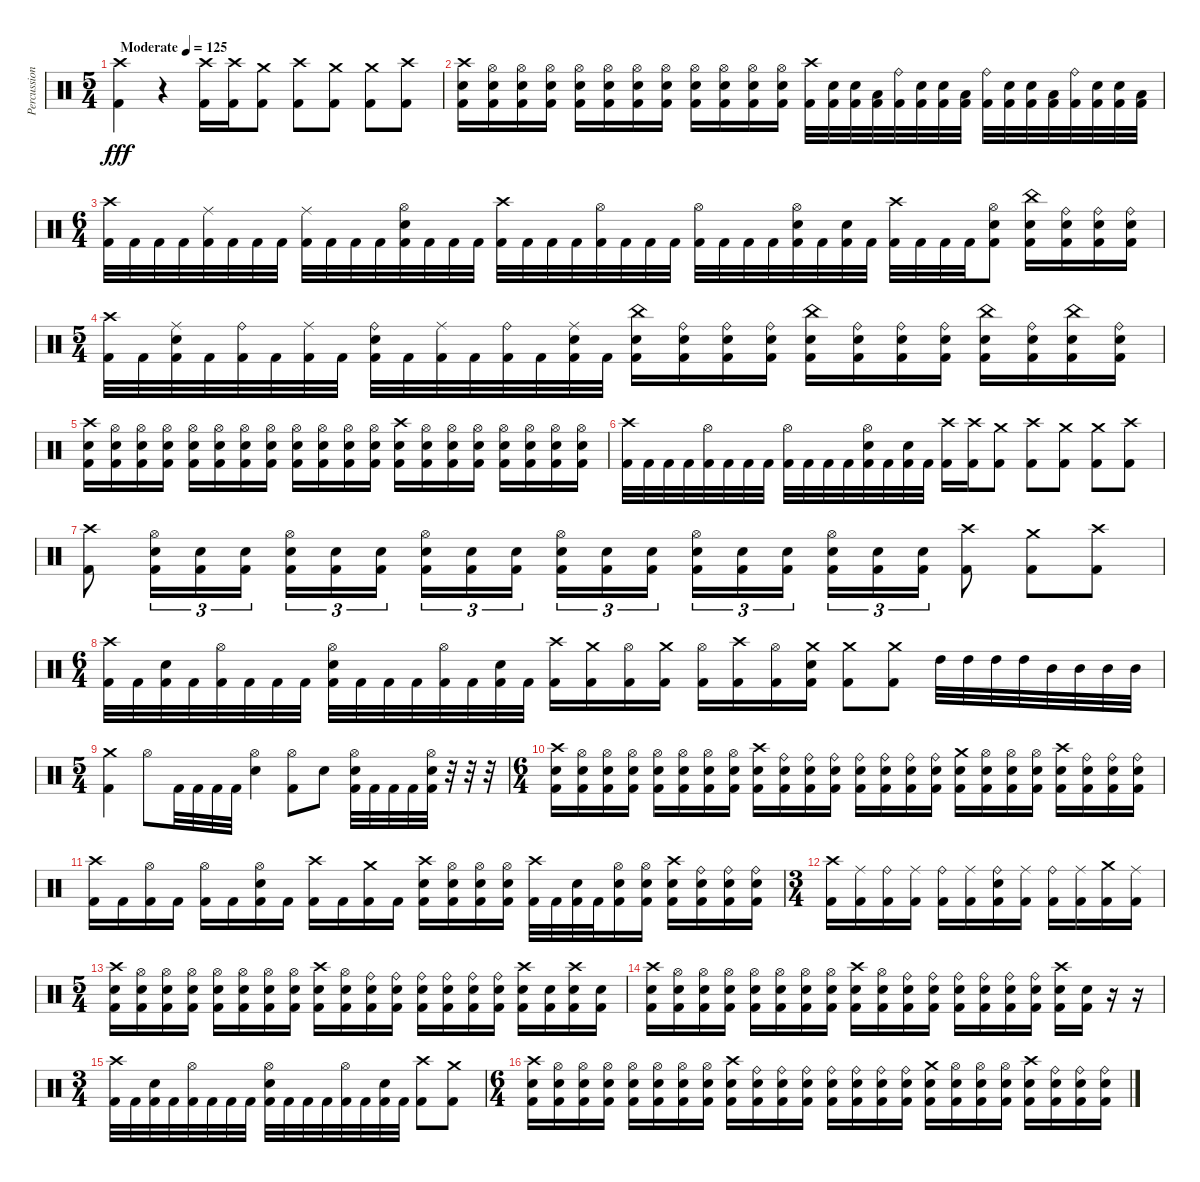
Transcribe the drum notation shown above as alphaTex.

\track ("Percussion" "Percussion") {instrument percussion}
\staff {score}
\articulation defaults
\ts (5 4)
\tempo (125 "Moderate")
\tempo 120
\tempo (125 "Moderate")
\clef neutral
\ks c
("Crash high (hit)" "Kick (hit) 2").4{dy fff} r.4 ("Crash high (hit)" "Kick (hit) 2").16 ("Crash high (hit)" "Kick (hit) 2").16 ("Crash medium (hit)" "Kick (hit) 2").8 ("Crash high (hit)" "Kick (hit) 2").8 ("Crash medium (hit)" "Kick (hit) 2").8 ("Crash medium (hit)" "Kick (hit) 2").8 ("Crash high (hit)" "Kick (hit) 2").8 |
("Electric Snare (hit)" "Crash high (hit)" "Kick (hit) 2").16 ("Electric Snare (hit)" "Hi-Hat (open)" "Kick (hit) 2").16 ("Electric Snare (hit)" "Hi-Hat (open)" "Kick (hit) 2").16 ("Electric Snare (hit)" "Hi-Hat (open)" "Kick (hit) 2").16 ("Electric Snare (hit)" "Hi-Hat (open)" "Kick (hit) 2").16 ("Electric Snare (hit)" "Hi-Hat (open)" "Kick (hit) 2").16 ("Electric Snare (hit)" "Hi-Hat (open)" "Kick (hit) 2").16 ("Electric Snare (hit)" "Hi-Hat (open)" "Kick (hit) 2").16 ("Electric Snare (hit)" "Hi-Hat (open)" "Kick (hit) 2").16 ("Electric Snare (hit)" "Hi-Hat (open)" "Kick (hit) 2").16 ("Electric Snare (hit)" "Hi-Hat (open)" "Kick (hit) 2").16 ("Electric Snare (hit)" "Hi-Hat (open)" "Kick (hit) 2").16 ("Crash high (hit)" "Kick (hit) 2").32 ("Electric Snare (hit)" "Kick (hit) 2").32 ("Electric Snare (hit)" "Kick (hit) 2").32 ("Low Tom (hit)" "Kick (hit) 2").32 ("Ride (bell)" "Kick (hit) 2").32 ("Electric Snare (hit)" "Kick (hit) 2").32 ("Electric Snare (hit)" "Kick (hit) 2").32 ("Low Tom (hit)" "Kick (hit) 2").32 ("Ride (bell)" "Kick (hit) 2").32 ("Electric Snare (hit)" "Kick (hit) 2").32 ("Electric Snare (hit)" "Kick (hit) 2").32 ("Low Tom (hit)" "Kick (hit) 2").32 ("Ride (bell)" "Kick (hit) 2").32 ("Electric Snare (hit)" "Kick (hit) 2").32 ("Electric Snare (hit)" "Kick (hit) 2").32 ("Low Tom (hit)" "Kick (hit) 2").32 |
\ts (6 4)
("Crash high (hit)" "Kick (hit) 2").32 "Kick (hit) 2".32 "Kick (hit) 2".32 "Kick (hit) 2".32 ("Ride (middle)" "Kick (hit) 2").32 "Kick (hit) 2".32 "Kick (hit) 2".32 "Kick (hit) 2".32 ("Ride (middle)" "Kick (hit) 2").32 "Kick (hit) 2".32 "Kick (hit) 2".32 "Kick (hit) 2".32 ("Electric Snare (hit)" "Hi-Hat (open)" "Kick (hit) 2").32 "Kick (hit) 2".32 "Kick (hit) 2".32 "Kick (hit) 2".32 ("Crash high (hit)" "Kick (hit) 2").32 "Kick (hit) 2".32 "Kick (hit) 2".32 "Kick (hit) 2".32 ("Hi-Hat (open)" "Kick (hit) 2").32 "Kick (hit) 2".32 "Kick (hit) 2".32 "Kick (hit) 2".32 ("Hi-Hat (open)" "Kick (hit) 2").32 "Kick (hit) 2".32 "Kick (hit) 2".32 "Kick (hit) 2".32 ("Electric Snare (hit)" "Hi-Hat (open)" "Kick (hit) 2").32 "Kick (hit) 2".32 ("Electric Snare (hit)" "Kick (hit) 2").32 "Kick (hit) 2".32 ("Crash high (hit)" "Kick (hit) 2").32 "Kick (hit) 2".32 "Kick (hit) 2".32 "Kick (hit) 2".32 ("Electric Snare (hit)" "Hi-Hat (open)" "Kick (hit) 2").8 ("Electric Snare (hit)" "China (hit)" "Kick (hit) 2").16 ("Electric Snare (hit)" "Ride (bell)" "Kick (hit) 2").16 ("Electric Snare (hit)" "Ride (bell)" "Kick (hit) 2").16 ("Electric Snare (hit)" "Ride (bell)" "Kick (hit) 2").16 |
\ts (5 4)
("Crash high (hit)" "Kick (hit) 2").32 "Kick (hit) 2".32 ("Electric Snare (hit)" "Ride (middle)" "Kick (hit) 2").32 "Kick (hit) 2".32 ("Ride (bell)" "Kick (hit) 2").32 "Kick (hit) 2".32 ("Ride (middle)" "Kick (hit) 2").32 "Kick (hit) 2".32 ("Electric Snare (hit)" "Ride (bell)" "Kick (hit) 2").32 "Kick (hit) 2".32 ("Ride (middle)" "Kick (hit) 2").32 "Kick (hit) 2".32 ("Ride (bell)" "Kick (hit) 2").32 "Kick (hit) 2".32 ("Electric Snare (hit)" "Ride (middle)" "Kick (hit) 2").32 "Kick (hit) 2".32 ("Electric Snare (hit)" "China (hit)" "Kick (hit) 2").16 ("Electric Snare (hit)" "Ride (bell)" "Kick (hit) 2").16 ("Electric Snare (hit)" "Ride (bell)" "Kick (hit) 2").16 ("Electric Snare (hit)" "Ride (bell)" "Kick (hit) 2").16 ("Electric Snare (hit)" "China (hit)" "Kick (hit) 2").16 ("Electric Snare (hit)" "Ride (bell)" "Kick (hit) 2").16 ("Electric Snare (hit)" "Ride (bell)" "Kick (hit) 2").16 ("Electric Snare (hit)" "Ride (bell)" "Kick (hit) 2").16 ("Electric Snare (hit)" "China (hit)" "Kick (hit) 2").16 ("Electric Snare (hit)" "Ride (bell)" "Kick (hit) 2").16 ("Electric Snare (hit)" "China (hit)" "Kick (hit) 2").16 ("Electric Snare (hit)" "Ride (bell)" "Kick (hit) 2").16 |
("Electric Snare (hit)" "Crash high (hit)" "Kick (hit) 2").16 ("Electric Snare (hit)" "Hi-Hat (open)" "Kick (hit) 2").16 ("Electric Snare (hit)" "Hi-Hat (open)" "Kick (hit) 2").16 ("Electric Snare (hit)" "Hi-Hat (open)" "Kick (hit) 2").16 ("Electric Snare (hit)" "Hi-Hat (open)" "Kick (hit) 2").16 ("Electric Snare (hit)" "Hi-Hat (open)" "Kick (hit) 2").16 ("Electric Snare (hit)" "Hi-Hat (open)" "Kick (hit) 2").16 ("Electric Snare (hit)" "Hi-Hat (open)" "Kick (hit) 2").16 ("Electric Snare (hit)" "Hi-Hat (open)" "Kick (hit) 2").16 ("Electric Snare (hit)" "Hi-Hat (open)" "Kick (hit) 2").16 ("Electric Snare (hit)" "Hi-Hat (open)" "Kick (hit) 2").16 ("Electric Snare (hit)" "Hi-Hat (open)" "Kick (hit) 2").16 ("Electric Snare (hit)" "Crash high (hit)" "Kick (hit) 2").16 ("Electric Snare (hit)" "Hi-Hat (open)" "Kick (hit) 2").16 ("Electric Snare (hit)" "Hi-Hat (open)" "Kick (hit) 2").16 ("Electric Snare (hit)" "Hi-Hat (open)" "Kick (hit) 2").16 ("Electric Snare (hit)" "Hi-Hat (open)" "Kick (hit) 2").16 ("Electric Snare (hit)" "Hi-Hat (open)" "Kick (hit) 2").16 ("Electric Snare (hit)" "Hi-Hat (open)" "Kick (hit) 2").16 ("Electric Snare (hit)" "Hi-Hat (open)" "Kick (hit) 2").16 |
("Crash high (hit)" "Kick (hit) 2").32 "Kick (hit) 2".32 "Kick (hit) 2".32 "Kick (hit) 2".32 ("Hi-Hat (open)" "Kick (hit) 2").32 "Kick (hit) 2".32 "Kick (hit) 2".32 "Kick (hit) 2".32 ("Hi-Hat (open)" "Kick (hit) 2").32 "Kick (hit) 2".32 "Kick (hit) 2".32 "Kick (hit) 2".32 ("Electric Snare (hit)" "Hi-Hat (open)" "Kick (hit) 2").32 "Kick (hit) 2".32 ("Electric Snare (hit)" "Kick (hit) 2").32 "Kick (hit) 2".32 ("Crash high (hit)" "Kick (hit) 2").16 ("Crash high (hit)" "Kick (hit) 2").16 ("Crash medium (hit)" "Kick (hit) 2").8 ("Crash high (hit)" "Kick (hit) 2").8 ("Crash medium (hit)" "Kick (hit) 2").8 ("Crash medium (hit)" "Kick (hit) 2").8 ("Crash high (hit)" "Kick (hit) 2").8 |
("Kick (hit) 2" "Crash high (hit)").8 ("Hi-Hat (open)" "Kick (hit) 2" "Electric Snare (hit)").16{tu (3 2)} ("Kick (hit) 2" "Electric Snare (hit)").16{tu (3 2)} ("Kick (hit) 2" "Electric Snare (hit)").16{tu (3 2)} ("Hi-Hat (open)" "Kick (hit) 2" "Electric Snare (hit)").16{tu (3 2)} ("Kick (hit) 2" "Electric Snare (hit)").16{tu (3 2)} ("Kick (hit) 2" "Electric Snare (hit)").16{tu (3 2) beam splitsecondary} ("Hi-Hat (open)" "Kick (hit) 2" "Electric Snare (hit)").16{tu (3 2)} ("Kick (hit) 2" "Electric Snare (hit)").16{tu (3 2)} ("Kick (hit) 2" "Electric Snare (hit)").16{tu (3 2)} ("Hi-Hat (open)" "Kick (hit) 2" "Electric Snare (hit)").16{tu (3 2)} ("Kick (hit) 2" "Electric Snare (hit)").16{tu (3 2)} ("Kick (hit) 2" "Electric Snare (hit)").16{tu (3 2) beam splitsecondary} ("Hi-Hat (open)" "Kick (hit) 2" "Electric Snare (hit)").16{tu (3 2)} ("Kick (hit) 2" "Electric Snare (hit)").16{tu (3 2)} ("Kick (hit) 2" "Electric Snare (hit)").16{tu (3 2)} ("Hi-Hat (open)" "Kick (hit) 2" "Electric Snare (hit)").16{tu (3 2)} ("Kick (hit) 2" "Electric Snare (hit)").16{tu (3 2)} ("Kick (hit) 2" "Electric Snare (hit)").16{tu (3 2)} ("Crash high (hit)" "Kick (hit) 2").8 ("Crash medium (hit)" "Kick (hit) 2").8 ("Crash high (hit)" "Kick (hit) 2").8 |
\ts (6 4)
("Crash high (hit)" "Kick (hit) 2").32 "Kick (hit) 2".32 ("Electric Snare (hit)" "Kick (hit) 2").32 "Kick (hit) 2".32 ("Hi-Hat (open)" "Kick (hit) 2").32 "Kick (hit) 2".32 "Kick (hit) 2".32 "Kick (hit) 2".32 ("Electric Snare (hit)" "Hi-Hat (open)" "Kick (hit) 2").32 "Kick (hit) 2".32 "Kick (hit) 2".32 "Kick (hit) 2".32 ("Hi-Hat (open)" "Kick (hit) 2").32 "Kick (hit) 2".32 ("Electric Snare (hit)" "Kick (hit) 2").32 "Kick (hit) 2".32 ("Crash high (hit)" "Kick (hit) 2").16 ("Crash medium (hit)" "Kick (hit) 2").16 ("Hi-Hat (open)" "Kick (hit) 2").16 ("Crash medium (hit)" "Kick (hit) 2").16 ("Hi-Hat (open)" "Kick (hit) 2").16 ("Crash high (hit)" "Kick (hit) 2").16 ("Hi-Hat (open)" "Kick (hit) 2").16 ("Electric Snare (hit)" "Crash medium (hit)" "Kick (hit) 2").16 ("Crash medium (hit)" "Kick (hit) 2").8 ("Crash medium (hit)" "Kick (hit) 2").8 "High Tom (hit)".32 "High Tom (hit)".32 "High Tom (hit)".32 "High Tom (hit)".32 "Mid Tom (hit)".32 "Mid Tom (hit)".32 "Mid Tom (hit)".32 "Mid Tom (hit)".32 |
\ts (5 4)
("Kick (hit) 2" "Crash medium (hit)").4 "Hi-Hat (open)".8 "Kick (hit) 2".32 "Kick (hit) 2".32 "Kick (hit) 2".32 "Kick (hit) 2".32 ("Electric Snare (hit)" "Hi-Hat (open)").4 ("Kick (hit) 2" "Hi-Hat (open)").8 "Electric Snare (hit)".8 ("Electric Snare (hit)" "Hi-Hat (open)" "Kick (hit) 2").32 "Kick (hit) 2".32 "Kick (hit) 2".32 "Kick (hit) 2".32 ("Electric Snare (hit)" "Hi-Hat (open)" "Kick (hit) 2").32 r.32 r.32 r.32 |
\ts (6 4)
("Electric Snare (hit)" "Crash high (hit)" "Kick (hit) 2").16 ("Electric Snare (hit)" "Hi-Hat (open)" "Kick (hit) 2").16 ("Electric Snare (hit)" "Hi-Hat (open)" "Kick (hit) 2").16 ("Electric Snare (hit)" "Hi-Hat (open)" "Kick (hit) 2").16 ("Electric Snare (hit)" "Hi-Hat (open)" "Kick (hit) 2").16 ("Electric Snare (hit)" "Hi-Hat (open)" "Kick (hit) 2").16 ("Electric Snare (hit)" "Hi-Hat (open)" "Kick (hit) 2").16 ("Electric Snare (hit)" "Hi-Hat (open)" "Kick (hit) 2").16 ("Electric Snare (hit)" "Crash high (hit)" "Kick (hit) 2").16 ("Electric Snare (hit)" "Ride (bell)" "Kick (hit) 2").16 ("Electric Snare (hit)" "Ride (bell)" "Kick (hit) 2").16 ("Electric Snare (hit)" "Ride (bell)" "Kick (hit) 2").16 ("Electric Snare (hit)" "Ride (bell)" "Kick (hit) 2").16 ("Electric Snare (hit)" "Ride (bell)" "Kick (hit) 2").16 ("Electric Snare (hit)" "Ride (bell)" "Kick (hit) 2").16 ("Electric Snare (hit)" "Ride (bell)" "Kick (hit) 2").16 ("Electric Snare (hit)" "Crash medium (hit)" "Kick (hit) 2").16 ("Electric Snare (hit)" "Hi-Hat (open)" "Kick (hit) 2").16 ("Electric Snare (hit)" "Hi-Hat (open)" "Kick (hit) 2").16 ("Electric Snare (hit)" "Hi-Hat (open)" "Kick (hit) 2").16 ("Electric Snare (hit)" "Crash high (hit)" "Kick (hit) 2").16 ("Electric Snare (hit)" "Ride (bell)" "Kick (hit) 2").16 ("Electric Snare (hit)" "Ride (bell)" "Kick (hit) 2").16 ("Electric Snare (hit)" "Ride (bell)" "Kick (hit) 2").16 |
("Crash high (hit)" "Kick (hit) 2").16 "Kick (hit) 2".16 ("Hi-Hat (open)" "Kick (hit) 2").16 "Kick (hit) 2".16 ("Hi-Hat (open)" "Kick (hit) 2").16 "Kick (hit) 2".16 ("Electric Snare (hit)" "Hi-Hat (open)" "Kick (hit) 2").16 "Kick (hit) 2".16 ("Crash high (hit)" "Kick (hit) 2").16 "Kick (hit) 2".16 ("Crash medium (hit)" "Kick (hit) 2").16 "Kick (hit) 2".16 ("Electric Snare (hit)" "Crash high (hit)" "Kick (hit) 2").16 ("Electric Snare (hit)" "Hi-Hat (open)" "Kick (hit) 2").16 ("Electric Snare (hit)" "Hi-Hat (open)" "Kick (hit) 2").16 ("Electric Snare (hit)" "Hi-Hat (open)" "Kick (hit) 2").16 ("Crash high (hit)" "Kick (hit) 2").32 "Kick (hit) 2".32 ("Electric Snare (hit)" "Kick (hit) 2").32 "Kick (hit) 2".32 ("Electric Snare (hit)" "Hi-Hat (open)" "Kick (hit) 2").16 ("Electric Snare (hit)" "Hi-Hat (open)" "Kick (hit) 2").16 ("Electric Snare (hit)" "Crash high (hit)" "Kick (hit) 2").16 ("Electric Snare (hit)" "Ride (bell)" "Kick (hit) 2").16 ("Electric Snare (hit)" "Ride (bell)" "Kick (hit) 2").16 ("Electric Snare (hit)" "Ride (bell)" "Kick (hit) 2").16 |
\ts (3 4)
("Crash high (hit)" "Kick (hit) 2").16 ("Ride (middle)" "Kick (hit) 2").16 ("Ride (bell)" "Kick (hit) 2").16 ("Ride (middle)" "Kick (hit) 2").16 ("Ride (bell)" "Kick (hit) 2").16 ("Ride (middle)" "Kick (hit) 2").16 ("Electric Snare (hit)" "Ride (bell)" "Kick (hit) 2").16 ("Ride (middle)" "Kick (hit) 2").16 ("Ride (bell)" "Kick (hit) 2").16 ("Ride (middle)" "Kick (hit) 2").16 ("Crash medium (hit)" "Kick (hit) 2").16 ("Ride (middle)" "Kick (hit) 2").16 |
\ts (5 4)
("Electric Snare (hit)" "Crash high (hit)" "Kick (hit) 2").16 ("Electric Snare (hit)" "Hi-Hat (open)" "Kick (hit) 2").16 ("Electric Snare (hit)" "Hi-Hat (open)" "Kick (hit) 2").16 ("Electric Snare (hit)" "Hi-Hat (open)" "Kick (hit) 2").16 ("Electric Snare (hit)" "Hi-Hat (open)" "Kick (hit) 2").16 ("Electric Snare (hit)" "Hi-Hat (open)" "Kick (hit) 2").16 ("Electric Snare (hit)" "Hi-Hat (open)" "Kick (hit) 2").16 ("Electric Snare (hit)" "Hi-Hat (open)" "Kick (hit) 2").16 ("Electric Snare (hit)" "Crash high (hit)" "Kick (hit) 2").16 ("Electric Snare (hit)" "Hi-Hat (open)" "Kick (hit) 2").16 ("Electric Snare (hit)" "Ride (bell)" "Kick (hit) 2").16 ("Electric Snare (hit)" "Ride (bell)" "Kick (hit) 2").16 ("Electric Snare (hit)" "Ride (bell)" "Kick (hit) 2").16 ("Electric Snare (hit)" "Ride (bell)" "Kick (hit) 2").16 ("Electric Snare (hit)" "Ride (bell)" "Kick (hit) 2").16 ("Electric Snare (hit)" "Ride (bell)" "Kick (hit) 2").16 ("Electric Snare (hit)" "Crash high (hit)" "Kick (hit) 2").16 ("Electric Snare (hit)" "Kick (hit) 2").16 ("Electric Snare (hit)" "Crash high (hit)" "Kick (hit) 2").16 ("Electric Snare (hit)" "Kick (hit) 2").16 |
("Electric Snare (hit)" "Crash high (hit)" "Kick (hit) 2").16 ("Electric Snare (hit)" "Hi-Hat (open)" "Kick (hit) 2").16 ("Electric Snare (hit)" "Hi-Hat (open)" "Kick (hit) 2").16 ("Electric Snare (hit)" "Hi-Hat (open)" "Kick (hit) 2").16 ("Electric Snare (hit)" "Hi-Hat (open)" "Kick (hit) 2").16 ("Electric Snare (hit)" "Hi-Hat (open)" "Kick (hit) 2").16 ("Electric Snare (hit)" "Hi-Hat (open)" "Kick (hit) 2").16 ("Electric Snare (hit)" "Hi-Hat (open)" "Kick (hit) 2").16 ("Electric Snare (hit)" "Crash high (hit)" "Kick (hit) 2").16 ("Electric Snare (hit)" "Hi-Hat (open)" "Kick (hit) 2").16 ("Electric Snare (hit)" "Ride (bell)" "Kick (hit) 2").16 ("Electric Snare (hit)" "Ride (bell)" "Kick (hit) 2").16 ("Electric Snare (hit)" "Ride (bell)" "Kick (hit) 2").16 ("Electric Snare (hit)" "Ride (bell)" "Kick (hit) 2").16 ("Electric Snare (hit)" "Ride (bell)" "Kick (hit) 2").16 ("Electric Snare (hit)" "Ride (bell)" "Kick (hit) 2").16 ("Electric Snare (hit)" "Crash high (hit)" "Kick (hit) 2").16 ("Electric Snare (hit)" "Kick (hit) 2").16 r.16 r.16 |
\ts (3 4)
("Crash high (hit)" "Kick (hit) 2").32 "Kick (hit) 2".32 ("Electric Snare (hit)" "Kick (hit) 2").32 "Kick (hit) 2".32 ("Hi-Hat (open)" "Kick (hit) 2").32 "Kick (hit) 2".32 "Kick (hit) 2".32 "Kick (hit) 2".32 ("Electric Snare (hit)" "Hi-Hat (open)" "Kick (hit) 2").32 "Kick (hit) 2".32 "Kick (hit) 2".32 "Kick (hit) 2".32 ("Hi-Hat (open)" "Kick (hit) 2").32 "Kick (hit) 2".32 ("Electric Snare (hit)" "Kick (hit) 2").32 "Kick (hit) 2".32 ("Crash high (hit)" "Kick (hit) 2").8 ("Crash medium (hit)" "Kick (hit) 2").8 |
\ts (6 4)
("Electric Snare (hit)" "Crash high (hit)" "Kick (hit) 2").16 ("Electric Snare (hit)" "Hi-Hat (open)" "Kick (hit) 2").16 ("Electric Snare (hit)" "Hi-Hat (open)" "Kick (hit) 2").16 ("Electric Snare (hit)" "Hi-Hat (open)" "Kick (hit) 2").16 ("Electric Snare (hit)" "Hi-Hat (open)" "Kick (hit) 2").16 ("Electric Snare (hit)" "Hi-Hat (open)" "Kick (hit) 2").16 ("Electric Snare (hit)" "Hi-Hat (open)" "Kick (hit) 2").16 ("Electric Snare (hit)" "Hi-Hat (open)" "Kick (hit) 2").16 ("Electric Snare (hit)" "Crash high (hit)" "Kick (hit) 2").16 ("Electric Snare (hit)" "Ride (bell)" "Kick (hit) 2").16 ("Electric Snare (hit)" "Ride (bell)" "Kick (hit) 2").16 ("Electric Snare (hit)" "Ride (bell)" "Kick (hit) 2").16 ("Electric Snare (hit)" "Ride (bell)" "Kick (hit) 2").16 ("Electric Snare (hit)" "Ride (bell)" "Kick (hit) 2").16 ("Electric Snare (hit)" "Ride (bell)" "Kick (hit) 2").16 ("Electric Snare (hit)" "Ride (bell)" "Kick (hit) 2").16 ("Electric Snare (hit)" "Crash medium (hit)" "Kick (hit) 2").16 ("Electric Snare (hit)" "Hi-Hat (open)" "Kick (hit) 2").16 ("Electric Snare (hit)" "Hi-Hat (open)" "Kick (hit) 2").16 ("Electric Snare (hit)" "Hi-Hat (open)" "Kick (hit) 2").16 ("Electric Snare (hit)" "Crash high (hit)" "Kick (hit) 2").16 ("Electric Snare (hit)" "Ride (bell)" "Kick (hit) 2").16 ("Electric Snare (hit)" "Ride (bell)" "Kick (hit) 2").16 ("Electric Snare (hit)" "Ride (bell)" "Kick (hit) 2").16
